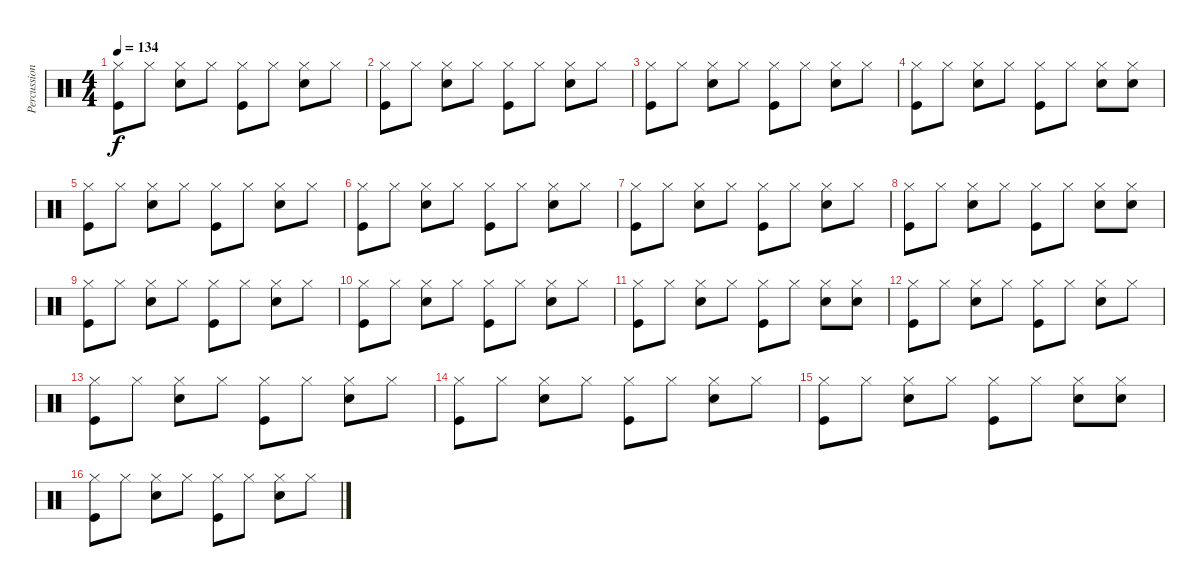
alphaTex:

\track ("Percussion" "Percussion") {instrument percussion}
\staff {score}
\articulation defaults
\ts (4 4)
\tempo 134
\clef neutral
\ks c
("Hi-Hat (closed)" "Kick (hit)").8{dy f} "Hi-Hat (closed)".8 ("Hi-Hat (closed)" "Snare (hit) 2").8 "Hi-Hat (closed)".8 ("Hi-Hat (closed)" "Kick (hit)").8 "Hi-Hat (closed)".8 ("Hi-Hat (closed)" "Snare (hit) 2").8 "Hi-Hat (closed)".8 |
("Hi-Hat (closed)" "Kick (hit)").8 "Hi-Hat (closed)".8 ("Hi-Hat (closed)" "Snare (hit) 2").8 "Hi-Hat (closed)".8 ("Hi-Hat (closed)" "Kick (hit)").8 "Hi-Hat (closed)".8 ("Hi-Hat (closed)" "Snare (hit) 2").8 "Hi-Hat (closed)".8 |
("Hi-Hat (closed)" "Kick (hit)").8 "Hi-Hat (closed)".8 ("Hi-Hat (closed)" "Snare (hit) 2").8 "Hi-Hat (closed)".8 ("Hi-Hat (closed)" "Kick (hit)").8 "Hi-Hat (closed)".8 ("Hi-Hat (closed)" "Snare (hit) 2").8 "Hi-Hat (closed)".8 |
("Hi-Hat (closed)" "Kick (hit)").8 "Hi-Hat (closed)".8 ("Hi-Hat (closed)" "Snare (hit) 2").8 "Hi-Hat (closed)".8 ("Hi-Hat (closed)" "Kick (hit)").8 "Hi-Hat (closed)".8 ("Hi-Hat (closed)" "Snare (hit) 2").8 ("Hi-Hat (closed)" "Snare (hit) 2").8 |
("Hi-Hat (closed)" "Kick (hit)").8 "Hi-Hat (closed)".8 ("Hi-Hat (closed)" "Snare (hit) 2").8 "Hi-Hat (closed)".8 ("Hi-Hat (closed)" "Kick (hit)").8 "Hi-Hat (closed)".8 ("Hi-Hat (closed)" "Snare (hit) 2").8 "Hi-Hat (closed)".8 |
("Hi-Hat (closed)" "Kick (hit)").8 "Hi-Hat (closed)".8 ("Hi-Hat (closed)" "Snare (hit) 2").8 "Hi-Hat (closed)".8 ("Hi-Hat (closed)" "Kick (hit)").8 "Hi-Hat (closed)".8 ("Hi-Hat (closed)" "Snare (hit) 2").8 "Hi-Hat (closed)".8 |
("Hi-Hat (closed)" "Kick (hit)").8 "Hi-Hat (closed)".8 ("Hi-Hat (closed)" "Snare (hit) 2").8 "Hi-Hat (closed)".8 ("Hi-Hat (closed)" "Kick (hit)").8 "Hi-Hat (closed)".8 ("Hi-Hat (closed)" "Snare (hit) 2").8 "Hi-Hat (closed)".8 |
("Hi-Hat (closed)" "Kick (hit)").8 "Hi-Hat (closed)".8 ("Hi-Hat (closed)" "Snare (hit) 2").8 "Hi-Hat (closed)".8 ("Hi-Hat (closed)" "Kick (hit)").8 "Hi-Hat (closed)".8 ("Hi-Hat (closed)" "Snare (hit) 2").8 ("Hi-Hat (closed)" "Snare (hit) 2").8 |
("Hi-Hat (closed)" "Kick (hit)").8 "Hi-Hat (closed)".8 ("Hi-Hat (closed)" "Snare (hit) 2").8 "Hi-Hat (closed)".8 ("Hi-Hat (closed)" "Kick (hit)").8 "Hi-Hat (closed)".8 ("Hi-Hat (closed)" "Snare (hit) 2").8 "Hi-Hat (closed)".8 |
("Hi-Hat (closed)" "Kick (hit)").8 "Hi-Hat (closed)".8 ("Hi-Hat (closed)" "Snare (hit) 2").8 "Hi-Hat (closed)".8 ("Hi-Hat (closed)" "Kick (hit)").8 "Hi-Hat (closed)".8 ("Hi-Hat (closed)" "Snare (hit) 2").8 "Hi-Hat (closed)".8 |
("Hi-Hat (closed)" "Kick (hit)").8 "Hi-Hat (closed)".8 ("Hi-Hat (closed)" "Snare (hit) 2").8 "Hi-Hat (closed)".8 ("Hi-Hat (closed)" "Kick (hit)").8 "Hi-Hat (closed)".8 ("Hi-Hat (closed)" "Snare (hit) 2").8 ("Hi-Hat (closed)" "Snare (hit) 2").8 |
("Hi-Hat (closed)" "Kick (hit)").8 "Hi-Hat (closed)".8 ("Hi-Hat (closed)" "Snare (hit) 2").8 "Hi-Hat (closed)".8 ("Hi-Hat (closed)" "Kick (hit)").8 "Hi-Hat (closed)".8 ("Hi-Hat (closed)" "Snare (hit) 2").8 "Hi-Hat (closed)".8 |
("Hi-Hat (closed)" "Kick (hit)").8 "Hi-Hat (closed)".8 ("Hi-Hat (closed)" "Snare (hit) 2").8 "Hi-Hat (closed)".8 ("Hi-Hat (closed)" "Kick (hit)").8 "Hi-Hat (closed)".8 ("Hi-Hat (closed)" "Snare (hit) 2").8 "Hi-Hat (closed)".8 |
("Hi-Hat (closed)" "Kick (hit)").8 "Hi-Hat (closed)".8 ("Hi-Hat (closed)" "Snare (hit) 2").8 "Hi-Hat (closed)".8 ("Hi-Hat (closed)" "Kick (hit)").8 "Hi-Hat (closed)".8 ("Hi-Hat (closed)" "Snare (hit) 2").8 "Hi-Hat (closed)".8 |
("Hi-Hat (closed)" "Kick (hit)").8 "Hi-Hat (closed)".8 ("Hi-Hat (closed)" "Snare (hit) 2").8 "Hi-Hat (closed)".8 ("Hi-Hat (closed)" "Kick (hit)").8 "Hi-Hat (closed)".8 ("Hi-Hat (closed)" "Snare (hit) 2").8 ("Hi-Hat (closed)" "Snare (hit) 2").8 |
("Hi-Hat (closed)" "Kick (hit)").8 "Hi-Hat (closed)".8 ("Hi-Hat (closed)" "Snare (hit) 2").8 "Hi-Hat (closed)".8 ("Hi-Hat (closed)" "Kick (hit)").8 "Hi-Hat (closed)".8 ("Hi-Hat (closed)" "Snare (hit) 2").8 "Hi-Hat (closed)".8
